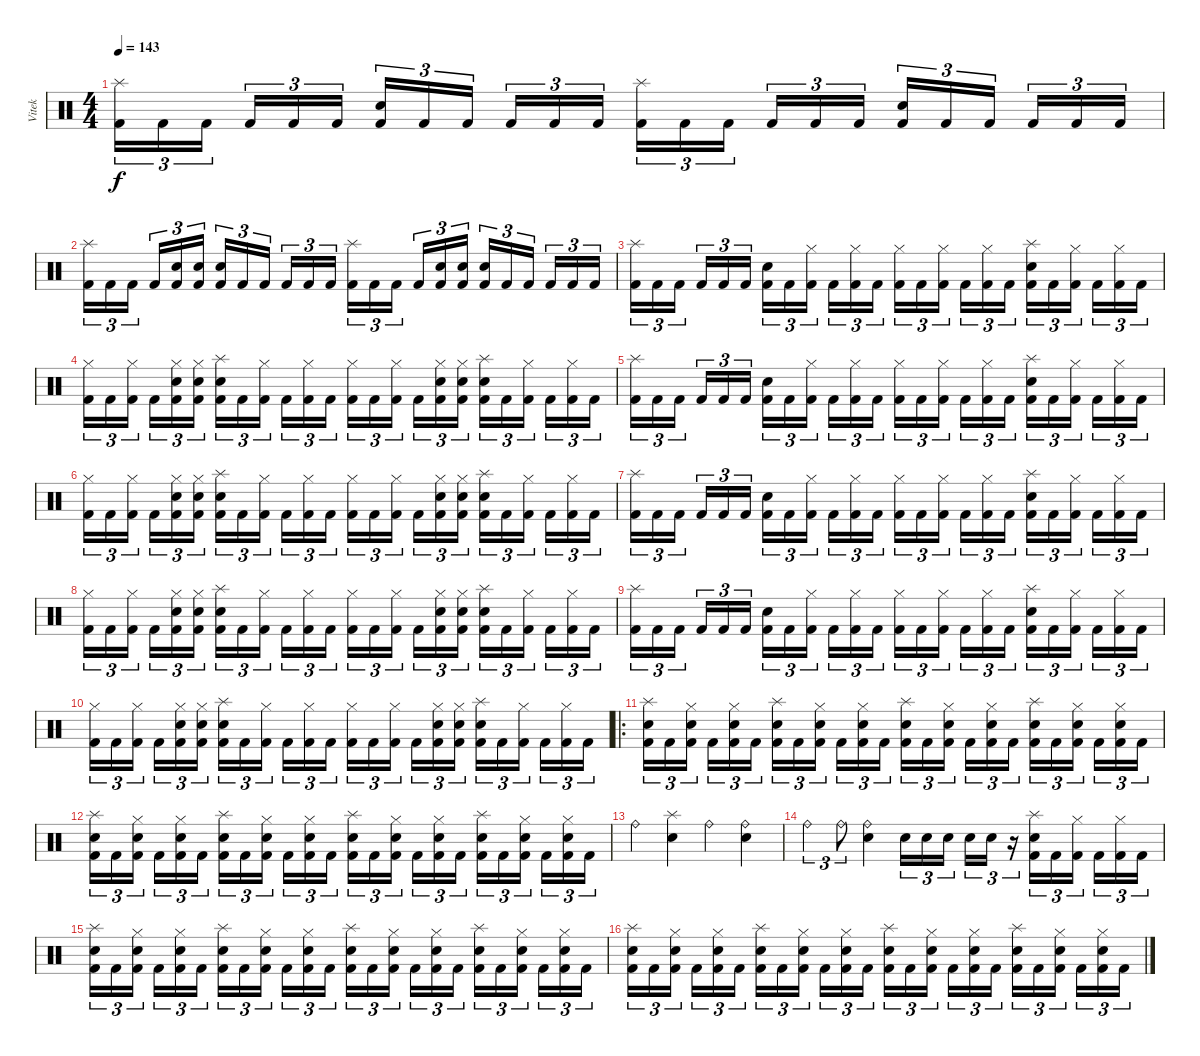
\track ("Vitek" "Vitek") {instrument percussion}
\staff {score}
\articulation defaults
\ts (4 4)
\tempo 143
\clef neutral
\ks c
("Splash (hit)" "Kick (hit) 2").16{tu (3 2) dy f} "Kick (hit) 2".16{tu (3 2)} "Kick (hit) 2".16{tu (3 2) beam splitsecondary} "Kick (hit) 2".16{tu (3 2)} "Kick (hit) 2".16{tu (3 2)} "Kick (hit) 2".16{tu (3 2)} ("Electric Snare (hit)" "Kick (hit) 2").16{tu (3 2)} "Kick (hit) 2".16{tu (3 2)} "Kick (hit) 2".16{tu (3 2) beam splitsecondary} "Kick (hit) 2".16{tu (3 2)} "Kick (hit) 2".16{tu (3 2)} "Kick (hit) 2".16{tu (3 2)} ("Splash (hit)" "Kick (hit) 2").16{tu (3 2)} "Kick (hit) 2".16{tu (3 2)} "Kick (hit) 2".16{tu (3 2) beam splitsecondary} "Kick (hit) 2".16{tu (3 2)} "Kick (hit) 2".16{tu (3 2)} "Kick (hit) 2".16{tu (3 2)} ("Electric Snare (hit)" "Kick (hit) 2").16{tu (3 2)} "Kick (hit) 2".16{tu (3 2)} "Kick (hit) 2".16{tu (3 2) beam splitsecondary} "Kick (hit) 2".16{tu (3 2)} "Kick (hit) 2".16{tu (3 2)} "Kick (hit) 2".16{tu (3 2)} |
("Splash (hit)" "Kick (hit) 2").16{tu (3 2)} "Kick (hit) 2".16{tu (3 2)} "Kick (hit) 2".16{tu (3 2) beam splitsecondary} "Kick (hit) 2".16{tu (3 2)} ("Electric Snare (hit)" "Kick (hit) 2").16{tu (3 2)} ("Electric Snare (hit)" "Kick (hit) 2").16{tu (3 2)} ("Electric Snare (hit)" "Kick (hit) 2").16{tu (3 2)} "Kick (hit) 2".16{tu (3 2)} "Kick (hit) 2".16{tu (3 2) beam splitsecondary} "Kick (hit) 2".16{tu (3 2)} "Kick (hit) 2".16{tu (3 2)} "Kick (hit) 2".16{tu (3 2)} ("Splash (hit)" "Kick (hit) 2").16{tu (3 2)} "Kick (hit) 2".16{tu (3 2)} "Kick (hit) 2".16{tu (3 2) beam splitsecondary} "Kick (hit) 2".16{tu (3 2)} ("Electric Snare (hit)" "Kick (hit) 2").16{tu (3 2)} ("Electric Snare (hit)" "Kick (hit) 2").16{tu (3 2)} ("Electric Snare (hit)" "Kick (hit) 2").16{tu (3 2)} "Kick (hit) 2".16{tu (3 2)} "Kick (hit) 2".16{tu (3 2) beam splitsecondary} "Kick (hit) 2".16{tu (3 2)} "Kick (hit) 2".16{tu (3 2)} "Kick (hit) 2".16{tu (3 2)} |
("Splash (hit)" "Kick (hit) 2").16{tu (3 2)} "Kick (hit) 2".16{tu (3 2)} "Kick (hit) 2".16{tu (3 2) beam splitsecondary} "Kick (hit) 2".16{tu (3 2)} "Kick (hit) 2".16{tu (3 2)} "Kick (hit) 2".16{tu (3 2)} ("Electric Snare (hit)" "Kick (hit) 2").16{tu (3 2)} "Kick (hit) 2".16{tu (3 2)} ("Hi-Hat (closed)" "Kick (hit) 2").16{tu (3 2) beam splitsecondary} "Kick (hit) 2".16{tu (3 2)} ("Hi-Hat (closed)" "Kick (hit) 2").16{tu (3 2)} "Kick (hit) 2".16{tu (3 2)} ("Hi-Hat (closed)" "Kick (hit) 2").16{tu (3 2)} "Kick (hit) 2".16{tu (3 2)} ("Hi-Hat (closed)" "Kick (hit) 2").16{tu (3 2) beam splitsecondary} "Kick (hit) 2".16{tu (3 2)} ("Hi-Hat (closed)" "Kick (hit) 2").16{tu (3 2)} "Kick (hit) 2".16{tu (3 2)} ("Splash (hit)" "Electric Snare (hit)" "Kick (hit) 2").16{tu (3 2)} "Kick (hit) 2".16{tu (3 2)} ("Hi-Hat (closed)" "Kick (hit) 2").16{tu (3 2) beam splitsecondary} "Kick (hit) 2".16{tu (3 2)} ("Hi-Hat (closed)" "Kick (hit) 2").16{tu (3 2)} "Kick (hit) 2".16{tu (3 2)} |
("Hi-Hat (closed)" "Kick (hit) 2").16{tu (3 2)} "Kick (hit) 2".16{tu (3 2)} ("Hi-Hat (closed)" "Kick (hit) 2").16{tu (3 2) beam splitsecondary} "Kick (hit) 2".16{tu (3 2)} ("Hi-Hat (closed)" "Electric Snare (hit)" "Kick (hit) 2").16{tu (3 2)} ("Hi-Hat (closed)" "Electric Snare (hit)" "Kick (hit) 2").16{tu (3 2)} ("Splash (hit)" "Electric Snare (hit)" "Kick (hit) 2").16{tu (3 2)} "Kick (hit) 2".16{tu (3 2)} ("Hi-Hat (closed)" "Kick (hit) 2").16{tu (3 2) beam splitsecondary} "Kick (hit) 2".16{tu (3 2)} ("Hi-Hat (closed)" "Kick (hit) 2").16{tu (3 2)} "Kick (hit) 2".16{tu (3 2)} ("Hi-Hat (closed)" "Kick (hit) 2").16{tu (3 2)} "Kick (hit) 2".16{tu (3 2)} ("Hi-Hat (closed)" "Kick (hit) 2").16{tu (3 2) beam splitsecondary} "Kick (hit) 2".16{tu (3 2)} ("Hi-Hat (closed)" "Electric Snare (hit)" "Kick (hit) 2").16{tu (3 2)} ("Hi-Hat (closed)" "Electric Snare (hit)" "Kick (hit) 2").16{tu (3 2)} ("Splash (hit)" "Electric Snare (hit)" "Kick (hit) 2").16{tu (3 2)} "Kick (hit) 2".16{tu (3 2)} ("Hi-Hat (closed)" "Kick (hit) 2").16{tu (3 2) beam splitsecondary} "Kick (hit) 2".16{tu (3 2)} ("Hi-Hat (closed)" "Kick (hit) 2").16{tu (3 2)} "Kick (hit) 2".16{tu (3 2)} |
("Splash (hit)" "Kick (hit) 2").16{tu (3 2)} "Kick (hit) 2".16{tu (3 2)} "Kick (hit) 2".16{tu (3 2) beam splitsecondary} "Kick (hit) 2".16{tu (3 2)} "Kick (hit) 2".16{tu (3 2)} "Kick (hit) 2".16{tu (3 2)} ("Electric Snare (hit)" "Kick (hit) 2").16{tu (3 2)} "Kick (hit) 2".16{tu (3 2)} ("Hi-Hat (closed)" "Kick (hit) 2").16{tu (3 2) beam splitsecondary} "Kick (hit) 2".16{tu (3 2)} ("Hi-Hat (closed)" "Kick (hit) 2").16{tu (3 2)} "Kick (hit) 2".16{tu (3 2)} ("Hi-Hat (closed)" "Kick (hit) 2").16{tu (3 2)} "Kick (hit) 2".16{tu (3 2)} ("Hi-Hat (closed)" "Kick (hit) 2").16{tu (3 2) beam splitsecondary} "Kick (hit) 2".16{tu (3 2)} ("Hi-Hat (closed)" "Kick (hit) 2").16{tu (3 2)} "Kick (hit) 2".16{tu (3 2)} ("Splash (hit)" "Electric Snare (hit)" "Kick (hit) 2").16{tu (3 2)} "Kick (hit) 2".16{tu (3 2)} ("Hi-Hat (closed)" "Kick (hit) 2").16{tu (3 2) beam splitsecondary} "Kick (hit) 2".16{tu (3 2)} ("Hi-Hat (closed)" "Kick (hit) 2").16{tu (3 2)} "Kick (hit) 2".16{tu (3 2)} |
("Hi-Hat (closed)" "Kick (hit) 2").16{tu (3 2)} "Kick (hit) 2".16{tu (3 2)} ("Hi-Hat (closed)" "Kick (hit) 2").16{tu (3 2) beam splitsecondary} "Kick (hit) 2".16{tu (3 2)} ("Hi-Hat (closed)" "Electric Snare (hit)" "Kick (hit) 2").16{tu (3 2)} ("Hi-Hat (closed)" "Electric Snare (hit)" "Kick (hit) 2").16{tu (3 2)} ("Splash (hit)" "Electric Snare (hit)" "Kick (hit) 2").16{tu (3 2)} "Kick (hit) 2".16{tu (3 2)} ("Hi-Hat (closed)" "Kick (hit) 2").16{tu (3 2) beam splitsecondary} "Kick (hit) 2".16{tu (3 2)} ("Hi-Hat (closed)" "Kick (hit) 2").16{tu (3 2)} "Kick (hit) 2".16{tu (3 2)} ("Hi-Hat (closed)" "Kick (hit) 2").16{tu (3 2)} "Kick (hit) 2".16{tu (3 2)} ("Hi-Hat (closed)" "Kick (hit) 2").16{tu (3 2) beam splitsecondary} "Kick (hit) 2".16{tu (3 2)} ("Hi-Hat (closed)" "Electric Snare (hit)" "Kick (hit) 2").16{tu (3 2)} ("Hi-Hat (closed)" "Electric Snare (hit)" "Kick (hit) 2").16{tu (3 2)} ("Splash (hit)" "Electric Snare (hit)" "Kick (hit) 2").16{tu (3 2)} "Kick (hit) 2".16{tu (3 2)} ("Hi-Hat (closed)" "Kick (hit) 2").16{tu (3 2) beam splitsecondary} "Kick (hit) 2".16{tu (3 2)} ("Hi-Hat (closed)" "Kick (hit) 2").16{tu (3 2)} "Kick (hit) 2".16{tu (3 2)} |
("Splash (hit)" "Kick (hit) 2").16{tu (3 2)} "Kick (hit) 2".16{tu (3 2)} "Kick (hit) 2".16{tu (3 2) beam splitsecondary} "Kick (hit) 2".16{tu (3 2)} "Kick (hit) 2".16{tu (3 2)} "Kick (hit) 2".16{tu (3 2)} ("Electric Snare (hit)" "Kick (hit) 2").16{tu (3 2)} "Kick (hit) 2".16{tu (3 2)} ("Hi-Hat (closed)" "Kick (hit) 2").16{tu (3 2) beam splitsecondary} "Kick (hit) 2".16{tu (3 2)} ("Hi-Hat (closed)" "Kick (hit) 2").16{tu (3 2)} "Kick (hit) 2".16{tu (3 2)} ("Hi-Hat (closed)" "Kick (hit) 2").16{tu (3 2)} "Kick (hit) 2".16{tu (3 2)} ("Hi-Hat (closed)" "Kick (hit) 2").16{tu (3 2) beam splitsecondary} "Kick (hit) 2".16{tu (3 2)} ("Hi-Hat (closed)" "Kick (hit) 2").16{tu (3 2)} "Kick (hit) 2".16{tu (3 2)} ("Splash (hit)" "Electric Snare (hit)" "Kick (hit) 2").16{tu (3 2)} "Kick (hit) 2".16{tu (3 2)} ("Hi-Hat (closed)" "Kick (hit) 2").16{tu (3 2) beam splitsecondary} "Kick (hit) 2".16{tu (3 2)} ("Hi-Hat (closed)" "Kick (hit) 2").16{tu (3 2)} "Kick (hit) 2".16{tu (3 2)} |
("Hi-Hat (closed)" "Kick (hit) 2").16{tu (3 2)} "Kick (hit) 2".16{tu (3 2)} ("Hi-Hat (closed)" "Kick (hit) 2").16{tu (3 2) beam splitsecondary} "Kick (hit) 2".16{tu (3 2)} ("Hi-Hat (closed)" "Electric Snare (hit)" "Kick (hit) 2").16{tu (3 2)} ("Hi-Hat (closed)" "Electric Snare (hit)" "Kick (hit) 2").16{tu (3 2)} ("Splash (hit)" "Electric Snare (hit)" "Kick (hit) 2").16{tu (3 2)} "Kick (hit) 2".16{tu (3 2)} ("Hi-Hat (closed)" "Kick (hit) 2").16{tu (3 2) beam splitsecondary} "Kick (hit) 2".16{tu (3 2)} ("Hi-Hat (closed)" "Kick (hit) 2").16{tu (3 2)} "Kick (hit) 2".16{tu (3 2)} ("Hi-Hat (closed)" "Kick (hit) 2").16{tu (3 2)} "Kick (hit) 2".16{tu (3 2)} ("Hi-Hat (closed)" "Kick (hit) 2").16{tu (3 2) beam splitsecondary} "Kick (hit) 2".16{tu (3 2)} ("Hi-Hat (closed)" "Electric Snare (hit)" "Kick (hit) 2").16{tu (3 2)} ("Hi-Hat (closed)" "Electric Snare (hit)" "Kick (hit) 2").16{tu (3 2)} ("Splash (hit)" "Electric Snare (hit)" "Kick (hit) 2").16{tu (3 2)} "Kick (hit) 2".16{tu (3 2)} ("Hi-Hat (closed)" "Kick (hit) 2").16{tu (3 2) beam splitsecondary} "Kick (hit) 2".16{tu (3 2)} ("Hi-Hat (closed)" "Kick (hit) 2").16{tu (3 2)} "Kick (hit) 2".16{tu (3 2)} |
("Splash (hit)" "Kick (hit) 2").16{tu (3 2)} "Kick (hit) 2".16{tu (3 2)} "Kick (hit) 2".16{tu (3 2) beam splitsecondary} "Kick (hit) 2".16{tu (3 2)} "Kick (hit) 2".16{tu (3 2)} "Kick (hit) 2".16{tu (3 2)} ("Electric Snare (hit)" "Kick (hit) 2").16{tu (3 2)} "Kick (hit) 2".16{tu (3 2)} ("Hi-Hat (closed)" "Kick (hit) 2").16{tu (3 2) beam splitsecondary} "Kick (hit) 2".16{tu (3 2)} ("Hi-Hat (closed)" "Kick (hit) 2").16{tu (3 2)} "Kick (hit) 2".16{tu (3 2)} ("Hi-Hat (closed)" "Kick (hit) 2").16{tu (3 2)} "Kick (hit) 2".16{tu (3 2)} ("Hi-Hat (closed)" "Kick (hit) 2").16{tu (3 2) beam splitsecondary} "Kick (hit) 2".16{tu (3 2)} ("Hi-Hat (closed)" "Kick (hit) 2").16{tu (3 2)} "Kick (hit) 2".16{tu (3 2)} ("Splash (hit)" "Electric Snare (hit)" "Kick (hit) 2").16{tu (3 2)} "Kick (hit) 2".16{tu (3 2)} ("Hi-Hat (closed)" "Kick (hit) 2").16{tu (3 2) beam splitsecondary} "Kick (hit) 2".16{tu (3 2)} ("Hi-Hat (closed)" "Kick (hit) 2").16{tu (3 2)} "Kick (hit) 2".16{tu (3 2)} |
("Hi-Hat (closed)" "Kick (hit) 2").16{tu (3 2)} "Kick (hit) 2".16{tu (3 2)} ("Hi-Hat (closed)" "Kick (hit) 2").16{tu (3 2) beam splitsecondary} "Kick (hit) 2".16{tu (3 2)} ("Hi-Hat (closed)" "Electric Snare (hit)" "Kick (hit) 2").16{tu (3 2)} ("Hi-Hat (closed)" "Electric Snare (hit)" "Kick (hit) 2").16{tu (3 2)} ("Splash (hit)" "Electric Snare (hit)" "Kick (hit) 2").16{tu (3 2)} "Kick (hit) 2".16{tu (3 2)} ("Hi-Hat (closed)" "Kick (hit) 2").16{tu (3 2) beam splitsecondary} "Kick (hit) 2".16{tu (3 2)} ("Hi-Hat (closed)" "Kick (hit) 2").16{tu (3 2)} "Kick (hit) 2".16{tu (3 2)} ("Hi-Hat (closed)" "Kick (hit) 2").16{tu (3 2)} "Kick (hit) 2".16{tu (3 2)} ("Hi-Hat (closed)" "Kick (hit) 2").16{tu (3 2) beam splitsecondary} "Kick (hit) 2".16{tu (3 2)} ("Hi-Hat (closed)" "Electric Snare (hit)" "Kick (hit) 2").16{tu (3 2)} ("Hi-Hat (closed)" "Electric Snare (hit)" "Kick (hit) 2").16{tu (3 2)} ("Splash (hit)" "Electric Snare (hit)" "Kick (hit) 2").16{tu (3 2)} "Kick (hit) 2".16{tu (3 2)} ("Hi-Hat (closed)" "Kick (hit) 2").16{tu (3 2) beam splitsecondary} "Kick (hit) 2".16{tu (3 2)} ("Hi-Hat (closed)" "Kick (hit) 2").16{tu (3 2)} "Kick (hit) 2".16{tu (3 2)} |
\ro
("Splash (hit)" "Electric Snare (hit)" "Kick (hit) 2").16{tu (3 2)} "Kick (hit) 2".16{tu (3 2)} ("Hi-Hat (closed)" "Electric Snare (hit)" "Kick (hit) 2").16{tu (3 2) beam splitsecondary} "Kick (hit) 2".16{tu (3 2)} ("Hi-Hat (closed)" "Electric Snare (hit)" "Kick (hit) 2").16{tu (3 2)} "Kick (hit) 2".16{tu (3 2)} ("Splash (hit)" "Electric Snare (hit)" "Kick (hit) 2").16{tu (3 2)} "Kick (hit) 2".16{tu (3 2)} ("Hi-Hat (closed)" "Electric Snare (hit)" "Kick (hit) 2").16{tu (3 2) beam splitsecondary} "Kick (hit) 2".16{tu (3 2)} ("Hi-Hat (closed)" "Electric Snare (hit)" "Kick (hit) 2").16{tu (3 2)} "Kick (hit) 2".16{tu (3 2)} ("Splash (hit)" "Electric Snare (hit)" "Kick (hit) 2").16{tu (3 2)} "Kick (hit) 2".16{tu (3 2)} ("Hi-Hat (closed)" "Electric Snare (hit)" "Kick (hit) 2").16{tu (3 2) beam splitsecondary} "Kick (hit) 2".16{tu (3 2)} ("Hi-Hat (closed)" "Electric Snare (hit)" "Kick (hit) 2").16{tu (3 2)} "Kick (hit) 2".16{tu (3 2)} ("Splash (hit)" "Electric Snare (hit)" "Kick (hit) 2").16{tu (3 2)} "Kick (hit) 2".16{tu (3 2)} ("Hi-Hat (closed)" "Electric Snare (hit)" "Kick (hit) 2").16{tu (3 2) beam splitsecondary} "Kick (hit) 2".16{tu (3 2)} ("Hi-Hat (closed)" "Electric Snare (hit)" "Kick (hit) 2").16{tu (3 2)} "Kick (hit) 2".16{tu (3 2)} |
("Splash (hit)" "Electric Snare (hit)" "Kick (hit) 2").16{tu (3 2)} "Kick (hit) 2".16{tu (3 2)} ("Hi-Hat (closed)" "Electric Snare (hit)" "Kick (hit) 2").16{tu (3 2) beam splitsecondary} "Kick (hit) 2".16{tu (3 2)} ("Hi-Hat (closed)" "Electric Snare (hit)" "Kick (hit) 2").16{tu (3 2)} "Kick (hit) 2".16{tu (3 2)} ("Splash (hit)" "Electric Snare (hit)" "Kick (hit) 2").16{tu (3 2)} "Kick (hit) 2".16{tu (3 2)} ("Hi-Hat (closed)" "Electric Snare (hit)" "Kick (hit) 2").16{tu (3 2) beam splitsecondary} "Kick (hit) 2".16{tu (3 2)} ("Hi-Hat (closed)" "Electric Snare (hit)" "Kick (hit) 2").16{tu (3 2)} "Kick (hit) 2".16{tu (3 2)} ("Splash (hit)" "Electric Snare (hit)" "Kick (hit) 2").16{tu (3 2)} "Kick (hit) 2".16{tu (3 2)} ("Hi-Hat (closed)" "Electric Snare (hit)" "Kick (hit) 2").16{tu (3 2) beam splitsecondary} "Kick (hit) 2".16{tu (3 2)} ("Hi-Hat (closed)" "Electric Snare (hit)" "Kick (hit) 2").16{tu (3 2)} "Kick (hit) 2".16{tu (3 2)} ("Splash (hit)" "Electric Snare (hit)" "Kick (hit) 2").16{tu (3 2)} "Kick (hit) 2".16{tu (3 2)} ("Hi-Hat (closed)" "Electric Snare (hit)" "Kick (hit) 2").16{tu (3 2) beam splitsecondary} "Kick (hit) 2".16{tu (3 2)} ("Hi-Hat (closed)" "Electric Snare (hit)" "Kick (hit) 2").16{tu (3 2)} "Kick (hit) 2".16{tu (3 2)} |
"Ride (bell)".4 ("Splash (hit)" "Electric Snare (hit)").4 "Ride (bell)".4 ("Ride (bell)" "Electric Snare (hit)").4 |
"Ride (bell)".4{tu (3 2)} "Ride (bell)".8{tu (3 2)} ("Ride (bell)" "Electric Snare (hit)").4 "Electric Snare (hit)".16{tu (3 2)} "Electric Snare (hit)".16{tu (3 2)} "Electric Snare (hit)".16{tu (3 2) beam splitsecondary} "Electric Snare (hit)".16{tu (3 2)} "Electric Snare (hit)".16{tu (3 2)} r.16{tu (3 2)} ("Splash (hit)" "Electric Snare (hit)" "Kick (hit) 2").16{tu (3 2)} "Kick (hit) 2".16{tu (3 2)} ("Hi-Hat (closed)" "Kick (hit) 2").16{tu (3 2) beam splitsecondary} "Kick (hit) 2".16{tu (3 2)} ("Hi-Hat (closed)" "Kick (hit) 2").16{tu (3 2)} "Kick (hit) 2".16{tu (3 2)} |
("Splash (hit)" "Electric Snare (hit)" "Kick (hit) 2").16{tu (3 2)} "Kick (hit) 2".16{tu (3 2)} ("Hi-Hat (closed)" "Electric Snare (hit)" "Kick (hit) 2").16{tu (3 2) beam splitsecondary} "Kick (hit) 2".16{tu (3 2)} ("Hi-Hat (closed)" "Electric Snare (hit)" "Kick (hit) 2").16{tu (3 2)} "Kick (hit) 2".16{tu (3 2)} ("Splash (hit)" "Electric Snare (hit)" "Kick (hit) 2").16{tu (3 2)} "Kick (hit) 2".16{tu (3 2)} ("Hi-Hat (closed)" "Electric Snare (hit)" "Kick (hit) 2").16{tu (3 2) beam splitsecondary} "Kick (hit) 2".16{tu (3 2)} ("Hi-Hat (closed)" "Electric Snare (hit)" "Kick (hit) 2").16{tu (3 2)} "Kick (hit) 2".16{tu (3 2)} ("Splash (hit)" "Electric Snare (hit)" "Kick (hit) 2").16{tu (3 2)} "Kick (hit) 2".16{tu (3 2)} ("Hi-Hat (closed)" "Electric Snare (hit)" "Kick (hit) 2").16{tu (3 2) beam splitsecondary} "Kick (hit) 2".16{tu (3 2)} ("Hi-Hat (closed)" "Electric Snare (hit)" "Kick (hit) 2").16{tu (3 2)} "Kick (hit) 2".16{tu (3 2)} ("Splash (hit)" "Electric Snare (hit)" "Kick (hit) 2").16{tu (3 2)} "Kick (hit) 2".16{tu (3 2)} ("Hi-Hat (closed)" "Electric Snare (hit)" "Kick (hit) 2").16{tu (3 2) beam splitsecondary} "Kick (hit) 2".16{tu (3 2)} ("Hi-Hat (closed)" "Electric Snare (hit)" "Kick (hit) 2").16{tu (3 2)} "Kick (hit) 2".16{tu (3 2)} |
("Splash (hit)" "Electric Snare (hit)" "Kick (hit) 2").16{tu (3 2)} "Kick (hit) 2".16{tu (3 2)} ("Hi-Hat (closed)" "Electric Snare (hit)" "Kick (hit) 2").16{tu (3 2) beam splitsecondary} "Kick (hit) 2".16{tu (3 2)} ("Hi-Hat (closed)" "Electric Snare (hit)" "Kick (hit) 2").16{tu (3 2)} "Kick (hit) 2".16{tu (3 2)} ("Splash (hit)" "Electric Snare (hit)" "Kick (hit) 2").16{tu (3 2)} "Kick (hit) 2".16{tu (3 2)} ("Hi-Hat (closed)" "Electric Snare (hit)" "Kick (hit) 2").16{tu (3 2) beam splitsecondary} "Kick (hit) 2".16{tu (3 2)} ("Hi-Hat (closed)" "Electric Snare (hit)" "Kick (hit) 2").16{tu (3 2)} "Kick (hit) 2".16{tu (3 2)} ("Splash (hit)" "Electric Snare (hit)" "Kick (hit) 2").16{tu (3 2)} "Kick (hit) 2".16{tu (3 2)} ("Hi-Hat (closed)" "Electric Snare (hit)" "Kick (hit) 2").16{tu (3 2) beam splitsecondary} "Kick (hit) 2".16{tu (3 2)} ("Hi-Hat (closed)" "Electric Snare (hit)" "Kick (hit) 2").16{tu (3 2)} "Kick (hit) 2".16{tu (3 2)} ("Splash (hit)" "Electric Snare (hit)" "Kick (hit) 2").16{tu (3 2)} "Kick (hit) 2".16{tu (3 2)} ("Hi-Hat (closed)" "Electric Snare (hit)" "Kick (hit) 2").16{tu (3 2) beam splitsecondary} "Kick (hit) 2".16{tu (3 2)} ("Hi-Hat (closed)" "Electric Snare (hit)" "Kick (hit) 2").16{tu (3 2)} "Kick (hit) 2".16{tu (3 2)}
